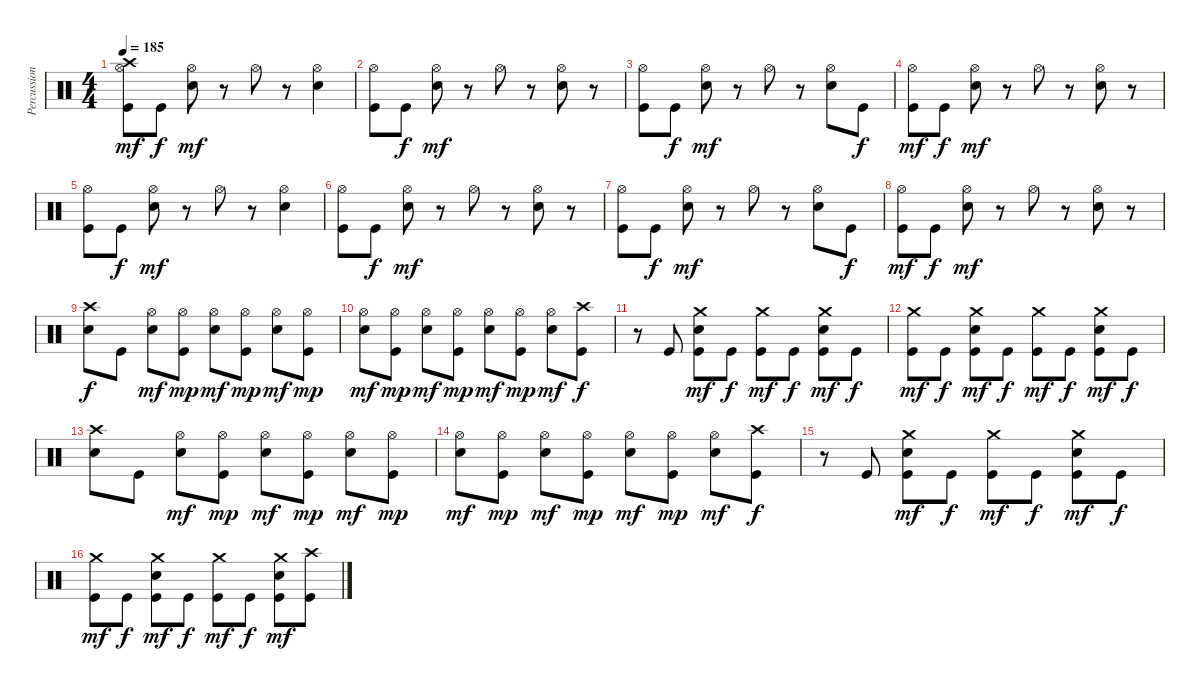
\track ("Percussions" "Percussion") {instrument percussion}
\staff {score}
\articulation defaults
\ts (4 4)
\tempo 185
\clef neutral
\ks c
("Kick (hit)" "Hi-Hat (open)" "Crash high (hit)").8{dy mf} "Kick (hit)".8{dy f} ("Electric Snare (hit)" "Hi-Hat (open)").8{dy mf} r.8 "Hi-Hat (open)".8 r.8 ("Electric Snare (hit)" "Hi-Hat (open)").4 |
("Kick (hit)" "Hi-Hat (open)").8 "Kick (hit)".8{dy f} ("Electric Snare (hit)" "Hi-Hat (open)").8{dy mf} r.8 "Hi-Hat (open)".8 r.8 ("Electric Snare (hit)" "Hi-Hat (open)").8 r.8 |
("Kick (hit)" "Hi-Hat (open)").8 "Kick (hit)".8{dy f} ("Electric Snare (hit)" "Hi-Hat (open)").8{dy mf} r.8 "Hi-Hat (open)".8 r.8 ("Electric Snare (hit)" "Hi-Hat (open)").8 "Kick (hit)".8{dy f} |
("Kick (hit)" "Hi-Hat (open)").8{dy mf} "Kick (hit)".8{dy f} ("Electric Snare (hit)" "Hi-Hat (open)").8{dy mf} r.8 "Hi-Hat (open)".8 r.8 ("Electric Snare (hit)" "Hi-Hat (open)").8 r.8 |
("Kick (hit)" "Hi-Hat (open)").8 "Kick (hit)".8{dy f} ("Electric Snare (hit)" "Hi-Hat (open)").8{dy mf} r.8 "Hi-Hat (open)".8 r.8 ("Electric Snare (hit)" "Hi-Hat (open)").4 |
("Kick (hit)" "Hi-Hat (open)").8 "Kick (hit)".8{dy f} ("Electric Snare (hit)" "Hi-Hat (open)").8{dy mf} r.8 "Hi-Hat (open)".8 r.8 ("Electric Snare (hit)" "Hi-Hat (open)").8 r.8 |
("Kick (hit)" "Hi-Hat (open)").8 "Kick (hit)".8{dy f} ("Electric Snare (hit)" "Hi-Hat (open)").8{dy mf} r.8 "Hi-Hat (open)".8 r.8 ("Electric Snare (hit)" "Hi-Hat (open)").8 "Kick (hit)".8{dy f} |
("Kick (hit)" "Hi-Hat (open)").8{dy mf} "Kick (hit)".8{dy f} ("Electric Snare (hit)" "Hi-Hat (open)").8{dy mf} r.8 "Hi-Hat (open)".8 r.8 ("Electric Snare (hit)" "Hi-Hat (open)").8 r.8 |
("Electric Snare (hit)" "Crash high (hit)").8{dy f} "Kick (hit)".8 ("Electric Snare (hit)" "Hi-Hat (open)").8{dy mf} ("Kick (hit)" "Hi-Hat (open)").8{dy mp} ("Electric Snare (hit)" "Hi-Hat (open)").8{dy mf} ("Kick (hit)" "Hi-Hat (open)").8{dy mp} ("Electric Snare (hit)" "Hi-Hat (open)").8{dy mf} ("Kick (hit)" "Hi-Hat (open)").8{dy mp} |
("Electric Snare (hit)" "Hi-Hat (open)").8{dy mf} ("Kick (hit)" "Hi-Hat (open)").8{dy mp} ("Electric Snare (hit)" "Hi-Hat (open)").8{dy mf} ("Kick (hit)" "Hi-Hat (open)").8{dy mp} ("Electric Snare (hit)" "Hi-Hat (open)").8{dy mf} ("Kick (hit)" "Hi-Hat (open)").8{dy mp} ("Electric Snare (hit)" "Hi-Hat (open)").8{dy mf} ("Kick (hit)" "Crash high (hit)").8{dy f} |
r.8 "Kick (hit)".8 ("Kick (hit)" "Electric Snare (hit)" "Crash medium (hit)").8{dy mf} "Kick (hit)".8{dy f} ("Kick (hit)" "Crash medium (hit)").8{dy mf} "Kick (hit)".8{dy f} ("Kick (hit)" "Electric Snare (hit)" "Crash medium (hit)").8{dy mf} "Kick (hit)".8{dy f} |
("Kick (hit)" "Crash medium (hit)").8{dy mf} "Kick (hit)".8{dy f} ("Kick (hit)" "Electric Snare (hit)" "Crash medium (hit)").8{dy mf} "Kick (hit)".8{dy f} ("Kick (hit)" "Crash medium (hit)").8{dy mf} "Kick (hit)".8{dy f} ("Kick (hit)" "Electric Snare (hit)" "Crash medium (hit)").8{dy mf} "Kick (hit)".8{dy f} |
("Electric Snare (hit)" "Crash high (hit)").8 "Kick (hit)".8 ("Electric Snare (hit)" "Hi-Hat (open)").8{dy mf} ("Kick (hit)" "Hi-Hat (open)").8{dy mp} ("Electric Snare (hit)" "Hi-Hat (open)").8{dy mf} ("Kick (hit)" "Hi-Hat (open)").8{dy mp} ("Electric Snare (hit)" "Hi-Hat (open)").8{dy mf} ("Kick (hit)" "Hi-Hat (open)").8{dy mp} |
("Electric Snare (hit)" "Hi-Hat (open)").8{dy mf} ("Kick (hit)" "Hi-Hat (open)").8{dy mp} ("Electric Snare (hit)" "Hi-Hat (open)").8{dy mf} ("Kick (hit)" "Hi-Hat (open)").8{dy mp} ("Electric Snare (hit)" "Hi-Hat (open)").8{dy mf} ("Kick (hit)" "Hi-Hat (open)").8{dy mp} ("Electric Snare (hit)" "Hi-Hat (open)").8{dy mf} ("Kick (hit)" "Crash high (hit)").8{dy f} |
r.8 "Kick (hit)".8 ("Kick (hit)" "Electric Snare (hit)" "Crash medium (hit)").8{dy mf} "Kick (hit)".8{dy f} ("Kick (hit)" "Crash medium (hit)").8{dy mf} "Kick (hit)".8{dy f} ("Kick (hit)" "Electric Snare (hit)" "Crash medium (hit)").8{dy mf} "Kick (hit)".8{dy f} |
("Kick (hit)" "Crash medium (hit)").8{dy mf} "Kick (hit)".8{dy f} ("Kick (hit)" "Electric Snare (hit)" "Crash medium (hit)").8{dy mf} "Kick (hit)".8{dy f} ("Kick (hit)" "Crash medium (hit)").8{dy mf} "Kick (hit)".8{dy f} ("Kick (hit)" "Electric Snare (hit)" "Crash medium (hit)").8{dy mf} ("Kick (hit)" "Crash high (hit)").8
